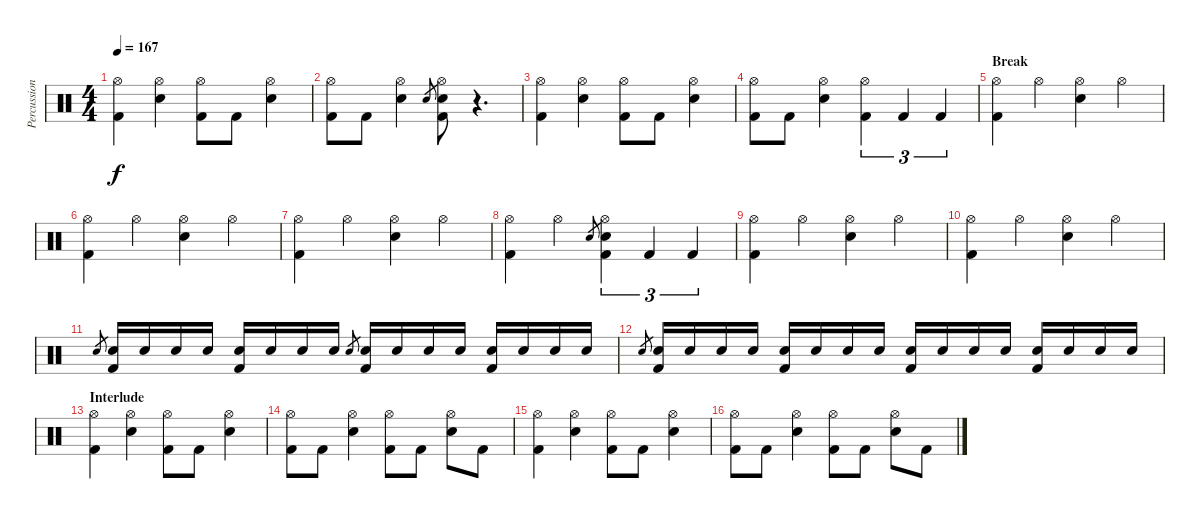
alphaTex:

\track ("Percussion" "Percussion") {instrument percussion}
\staff {score}
\articulation defaults
\ts (4 4)
\tempo 167
\clef neutral
\ks c
("Hi-Hat (open)" "Kick (hit) 2").4{dy f} ("Hi-Hat (open)" "Electric Snare (hit)").4 ("Hi-Hat (open)" "Kick (hit) 2").8 "Kick (hit) 2".8 ("Hi-Hat (open)" "Electric Snare (hit)").4 |
("Hi-Hat (open)" "Kick (hit) 2").8 "Kick (hit) 2".8 ("Hi-Hat (open)" "Electric Snare (hit)").4 "Electric Snare (hit)".8{gr} ("Hi-Hat (open)" "Electric Snare (hit)" "Kick (hit) 2").8 r.4{d} |
("Hi-Hat (open)" "Kick (hit) 2").4 ("Hi-Hat (open)" "Electric Snare (hit)").4 ("Hi-Hat (open)" "Kick (hit) 2").8 "Kick (hit) 2".8 ("Hi-Hat (open)" "Electric Snare (hit)").4 |
("Hi-Hat (open)" "Kick (hit) 2").8 "Kick (hit) 2".8 ("Hi-Hat (open)" "Electric Snare (hit)").4 ("Hi-Hat (open)" "Kick (hit) 2").4{tu (3 2)} "Kick (hit) 2".4{tu (3 2)} "Kick (hit) 2".4{tu (3 2)} |
\section ("" "Break")
("Hi-Hat (open)" "Kick (hit) 2").4 "Hi-Hat (open)".4 ("Hi-Hat (open)" "Electric Snare (hit)").4 "Hi-Hat (open)".4 |
("Hi-Hat (open)" "Kick (hit) 2").4 "Hi-Hat (open)".4 ("Hi-Hat (open)" "Electric Snare (hit)").4 "Hi-Hat (open)".4 |
("Hi-Hat (open)" "Kick (hit) 2").4 "Hi-Hat (open)".4 ("Hi-Hat (open)" "Electric Snare (hit)").4 "Hi-Hat (open)".4 |
("Hi-Hat (open)" "Kick (hit) 2").4 "Hi-Hat (open)".4 "Electric Snare (hit)".8{gr} ("Hi-Hat (open)" "Electric Snare (hit)" "Kick (hit) 2").4{tu (3 2)} "Kick (hit) 2".4{tu (3 2)} "Kick (hit) 2".4{tu (3 2)} |
("Hi-Hat (open)" "Kick (hit) 2").4 "Hi-Hat (open)".4 ("Hi-Hat (open)" "Electric Snare (hit)").4 "Hi-Hat (open)".4 |
("Hi-Hat (open)" "Kick (hit) 2").4 "Hi-Hat (open)".4 ("Hi-Hat (open)" "Electric Snare (hit)").4 "Hi-Hat (open)".4 |
"Electric Snare (hit)".8{gr} ("Electric Snare (hit)" "Kick (hit) 2").16 "Electric Snare (hit)".16 "Electric Snare (hit)".16 "Electric Snare (hit)".16 ("Electric Snare (hit)" "Kick (hit) 2").16 "Electric Snare (hit)".16 "Electric Snare (hit)".16 "Electric Snare (hit)".16 "Electric Snare (hit)".8{gr} ("Electric Snare (hit)" "Kick (hit) 2").16 "Electric Snare (hit)".16 "Electric Snare (hit)".16 "Electric Snare (hit)".16 ("Electric Snare (hit)" "Kick (hit) 2").16 "Electric Snare (hit)".16 "Electric Snare (hit)".16 "Electric Snare (hit)".16 |
"Electric Snare (hit)".8{gr} ("Electric Snare (hit)" "Kick (hit) 2").16 "Electric Snare (hit)".16 "Electric Snare (hit)".16 "Electric Snare (hit)".16 ("Electric Snare (hit)" "Kick (hit) 2").16 "Electric Snare (hit)".16 "Electric Snare (hit)".16 "Electric Snare (hit)".16 ("Electric Snare (hit)" "Kick (hit) 2").16 "Electric Snare (hit)".16 "Electric Snare (hit)".16 "Electric Snare (hit)".16 ("Electric Snare (hit)" "Kick (hit) 2").16 "Electric Snare (hit)".16 "Electric Snare (hit)".16 "Electric Snare (hit)".16 |
\section ("" "Interlude")
("Hi-Hat (open)" "Kick (hit) 2").4 ("Hi-Hat (open)" "Electric Snare (hit)").4 ("Hi-Hat (open)" "Kick (hit) 2").8 "Kick (hit) 2".8 ("Hi-Hat (open)" "Electric Snare (hit)").4 |
("Hi-Hat (open)" "Kick (hit) 2").8 "Kick (hit) 2".8 ("Hi-Hat (open)" "Electric Snare (hit)").4 ("Hi-Hat (open)" "Kick (hit) 2").8 "Kick (hit) 2".8 ("Hi-Hat (open)" "Electric Snare (hit)").8 "Kick (hit) 2".8 |
("Hi-Hat (open)" "Kick (hit) 2").4 ("Hi-Hat (open)" "Electric Snare (hit)").4 ("Hi-Hat (open)" "Kick (hit) 2").8 "Kick (hit) 2".8 ("Hi-Hat (open)" "Electric Snare (hit)").4 |
("Hi-Hat (open)" "Kick (hit) 2").8 "Kick (hit) 2".8 ("Hi-Hat (open)" "Electric Snare (hit)").4 ("Hi-Hat (open)" "Kick (hit) 2").8 "Kick (hit) 2".8 ("Hi-Hat (open)" "Electric Snare (hit)").8 "Kick (hit) 2".8
